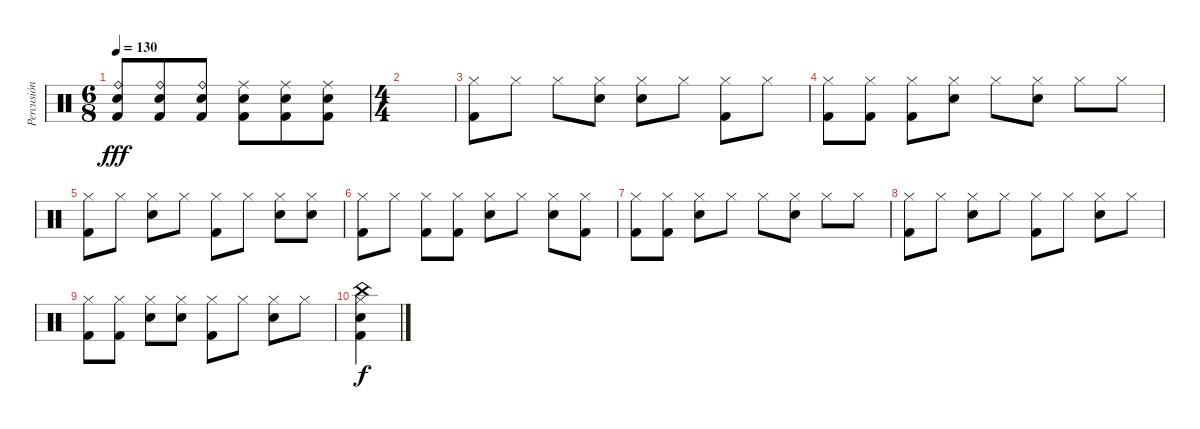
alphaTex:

\track ("Percusión" "Percusión") {instrument percussion}
\staff {score}
\articulation defaults
\ts (6 8)
\tempo 130
\clef neutral
\ks c
("Kick (hit) 2" "Ride (bell)" "Snare (hit) 2").8{dy fff} ("Kick (hit) 2" "Ride (bell)" "Snare (hit) 2").8 ("Kick (hit) 2" "Ride (bell)" "Snare (hit) 2").8 ("Kick (hit) 2" "Ride (middle)" "Snare (hit) 2").8 ("Kick (hit) 2" "Ride (middle)" "Snare (hit) 2").8 ("Kick (hit) 2" "Ride (middle)" "Snare (hit) 2").8 |
\ts (4 4)
|
("Kick (hit) 2" "Hi-Hat (closed)").8 "Hi-Hat (closed)".8 "Hi-Hat (closed)".8 ("Snare (hit) 2" "Hi-Hat (closed)").8 ("Snare (hit) 2" "Hi-Hat (closed)").8 "Hi-Hat (closed)".8 ("Kick (hit) 2" "Hi-Hat (closed)").8 "Hi-Hat (closed)".8 |
("Kick (hit) 2" "Hi-Hat (closed)").8 ("Kick (hit) 2" "Hi-Hat (closed)").8 ("Kick (hit) 2" "Hi-Hat (closed)").8 ("Snare (hit) 2" "Hi-Hat (closed)").8 "Hi-Hat (closed)".8 ("Snare (hit) 2" "Hi-Hat (closed)").8 "Hi-Hat (closed)".8 "Hi-Hat (closed)".8 |
("Kick (hit) 2" "Hi-Hat (closed)").8 "Hi-Hat (closed)".8 ("Snare (hit) 2" "Hi-Hat (closed)").8 "Hi-Hat (closed)".8 ("Kick (hit) 2" "Hi-Hat (closed)").8 "Hi-Hat (closed)".8 ("Snare (hit) 2" "Hi-Hat (closed)").8 ("Snare (hit) 2" "Hi-Hat (closed)").8 |
("Kick (hit) 2" "Hi-Hat (closed)").8 "Hi-Hat (closed)".8 ("Kick (hit) 2" "Hi-Hat (closed)").8 ("Kick (hit) 2" "Hi-Hat (closed)").8 ("Snare (hit) 2" "Hi-Hat (closed)").8 "Hi-Hat (closed)".8 ("Snare (hit) 2" "Hi-Hat (closed)").8 ("Kick (hit) 2" "Hi-Hat (closed)").8 |
("Kick (hit) 2" "Hi-Hat (closed)").8 ("Kick (hit) 2" "Hi-Hat (closed)").8 ("Snare (hit) 2" "Hi-Hat (closed)").8 "Hi-Hat (closed)".8 "Hi-Hat (closed)".8 ("Snare (hit) 2" "Hi-Hat (closed)").8 "Hi-Hat (closed)".8 "Hi-Hat (closed)".8 |
("Kick (hit) 2" "Hi-Hat (closed)").8 "Hi-Hat (closed)".8 ("Snare (hit) 2" "Hi-Hat (closed)").8 "Hi-Hat (closed)".8 ("Kick (hit) 2" "Hi-Hat (closed)").8 "Hi-Hat (closed)".8 ("Snare (hit) 2" "Hi-Hat (closed)").8 "Hi-Hat (closed)".8 |
("Kick (hit) 2" "Hi-Hat (closed)").8 ("Kick (hit) 2" "Hi-Hat (closed)").8 ("Snare (hit) 2" "Hi-Hat (closed)").8 ("Snare (hit) 2" "Hi-Hat (closed)").8 ("Kick (hit) 2" "Hi-Hat (closed)").8 "Hi-Hat (closed)".8 ("Snare (hit) 2" "Hi-Hat (closed)").8 "Hi-Hat (closed)".8 |
("Kick (hit) 2" "Snare (hit) 2" "Hi-Hat (closed)" "China (hit)").4{dy f}
